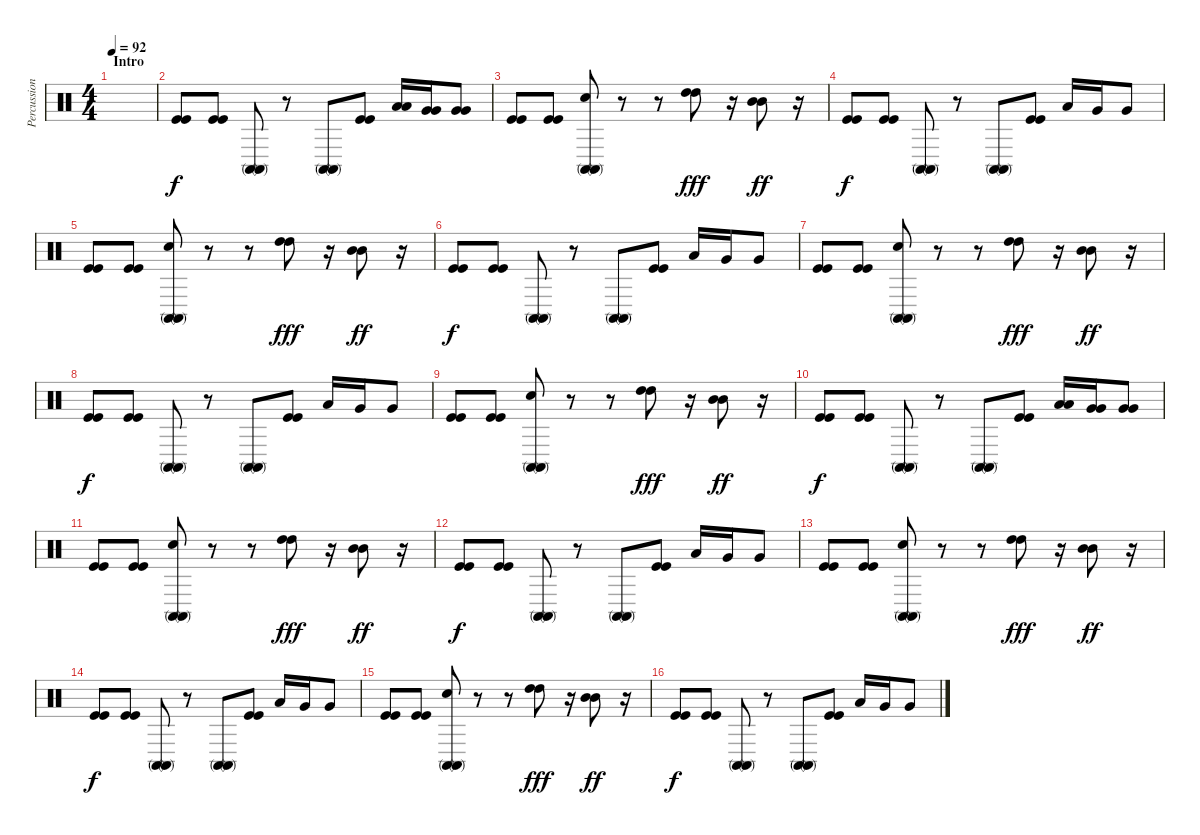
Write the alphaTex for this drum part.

\track ("Percussion" "Percussion") {instrument percussion}
\staff {score}
\articulation defaults
\ts (4 4)
\section ("" "Intro")
\tempo 92
\clef neutral
\ks c
|
("Kick (hit)" "Kick (hit)").8 ("Kick (hit)" "Kick (hit)").8 ("Conga high (mute)" "Conga high (mute)").8 r.8 ("Conga high (mute)" "Conga high (mute)").8 ("Kick (hit)" "Kick (hit)").8 ("Low Tom (hit)" "Low Tom (hit)").16 ("Very Low Tom (hit)" "Very Low Tom (hit)").16 ("Very Low Tom (hit)" "Very Low Tom (hit)").8 |
("Kick (hit)" "Kick (hit)").8 ("Kick (hit)" "Kick (hit)").8 ("Conga high (mute)" "Conga high (mute)" "Electric Snare (hit)").8 r.8 r.8 ("High Tom (hit)" "High Tom (hit)").8{dy fff} r.16 ("Mid Tom (hit)" "Mid Tom (hit)").8{dy ff} r.16 |
("Kick (hit)" "Kick (hit)").8{dy f} ("Kick (hit)" "Kick (hit)").8 ("Conga high (mute)" "Conga high (mute)").8 r.8 ("Conga high (mute)" "Conga high (mute)").8 ("Kick (hit)" "Kick (hit)").8 "Low Tom (hit)".16 "Very Low Tom (hit)".16 "Very Low Tom (hit)".8 |
("Kick (hit)" "Kick (hit)").8 ("Kick (hit)" "Kick (hit)").8 ("Conga high (mute)" "Conga high (mute)" "Electric Snare (hit)").8 r.8 r.8 ("High Tom (hit)" "High Tom (hit)").8{dy fff} r.16 ("Mid Tom (hit)" "Mid Tom (hit)").8{dy ff} r.16 |
("Kick (hit)" "Kick (hit)").8{dy f} ("Kick (hit)" "Kick (hit)").8 ("Conga high (mute)" "Conga high (mute)").8 r.8 ("Conga high (mute)" "Conga high (mute)").8 ("Kick (hit)" "Kick (hit)").8 "Low Tom (hit)".16 "Very Low Tom (hit)".16 "Very Low Tom (hit)".8 |
("Kick (hit)" "Kick (hit)").8 ("Kick (hit)" "Kick (hit)").8 ("Conga high (mute)" "Conga high (mute)" "Electric Snare (hit)").8 r.8 r.8 ("High Tom (hit)" "High Tom (hit)").8{dy fff} r.16 ("Mid Tom (hit)" "Mid Tom (hit)").8{dy ff} r.16 |
("Kick (hit)" "Kick (hit)").8{dy f} ("Kick (hit)" "Kick (hit)").8 ("Conga high (mute)" "Conga high (mute)").8 r.8 ("Conga high (mute)" "Conga high (mute)").8 ("Kick (hit)" "Kick (hit)").8 "Low Tom (hit)".16 "Very Low Tom (hit)".16 "Very Low Tom (hit)".8 |
("Kick (hit)" "Kick (hit)").8 ("Kick (hit)" "Kick (hit)").8 ("Conga high (mute)" "Conga high (mute)" "Electric Snare (hit)").8 r.8 r.8 ("High Tom (hit)" "High Tom (hit)").8{dy fff} r.16 ("Mid Tom (hit)" "Mid Tom (hit)").8{dy ff} r.16 |
("Kick (hit)" "Kick (hit)").8{dy f} ("Kick (hit)" "Kick (hit)").8 ("Conga high (mute)" "Conga high (mute)").8 r.8 ("Conga high (mute)" "Conga high (mute)").8 ("Kick (hit)" "Kick (hit)").8 ("Low Tom (hit)" "Low Tom (hit)").16 ("Very Low Tom (hit)" "Very Low Tom (hit)").16 ("Very Low Tom (hit)" "Very Low Tom (hit)").8 |
("Kick (hit)" "Kick (hit)").8 ("Kick (hit)" "Kick (hit)").8 ("Conga high (mute)" "Conga high (mute)" "Electric Snare (hit)").8 r.8 r.8 ("High Tom (hit)" "High Tom (hit)").8{dy fff} r.16 ("Mid Tom (hit)" "Mid Tom (hit)").8{dy ff} r.16 |
("Kick (hit)" "Kick (hit)").8{dy f} ("Kick (hit)" "Kick (hit)").8 ("Conga high (mute)" "Conga high (mute)").8 r.8 ("Conga high (mute)" "Conga high (mute)").8 ("Kick (hit)" "Kick (hit)").8 "Low Tom (hit)".16 "Very Low Tom (hit)".16 "Very Low Tom (hit)".8 |
("Kick (hit)" "Kick (hit)").8 ("Kick (hit)" "Kick (hit)").8 ("Conga high (mute)" "Conga high (mute)" "Electric Snare (hit)").8 r.8 r.8 ("High Tom (hit)" "High Tom (hit)").8{dy fff} r.16 ("Mid Tom (hit)" "Mid Tom (hit)").8{dy ff} r.16 |
("Kick (hit)" "Kick (hit)").8{dy f} ("Kick (hit)" "Kick (hit)").8 ("Conga high (mute)" "Conga high (mute)").8 r.8 ("Conga high (mute)" "Conga high (mute)").8 ("Kick (hit)" "Kick (hit)").8 "Low Tom (hit)".16 "Very Low Tom (hit)".16 "Very Low Tom (hit)".8 |
("Kick (hit)" "Kick (hit)").8 ("Kick (hit)" "Kick (hit)").8 ("Conga high (mute)" "Conga high (mute)" "Electric Snare (hit)").8 r.8 r.8 ("High Tom (hit)" "High Tom (hit)").8{dy fff} r.16 ("Mid Tom (hit)" "Mid Tom (hit)").8{dy ff} r.16 |
("Kick (hit)" "Kick (hit)").8{dy f} ("Kick (hit)" "Kick (hit)").8 ("Conga high (mute)" "Conga high (mute)").8 r.8 ("Conga high (mute)" "Conga high (mute)").8 ("Kick (hit)" "Kick (hit)").8 "Low Tom (hit)".16 "Very Low Tom (hit)".16 "Very Low Tom (hit)".8
